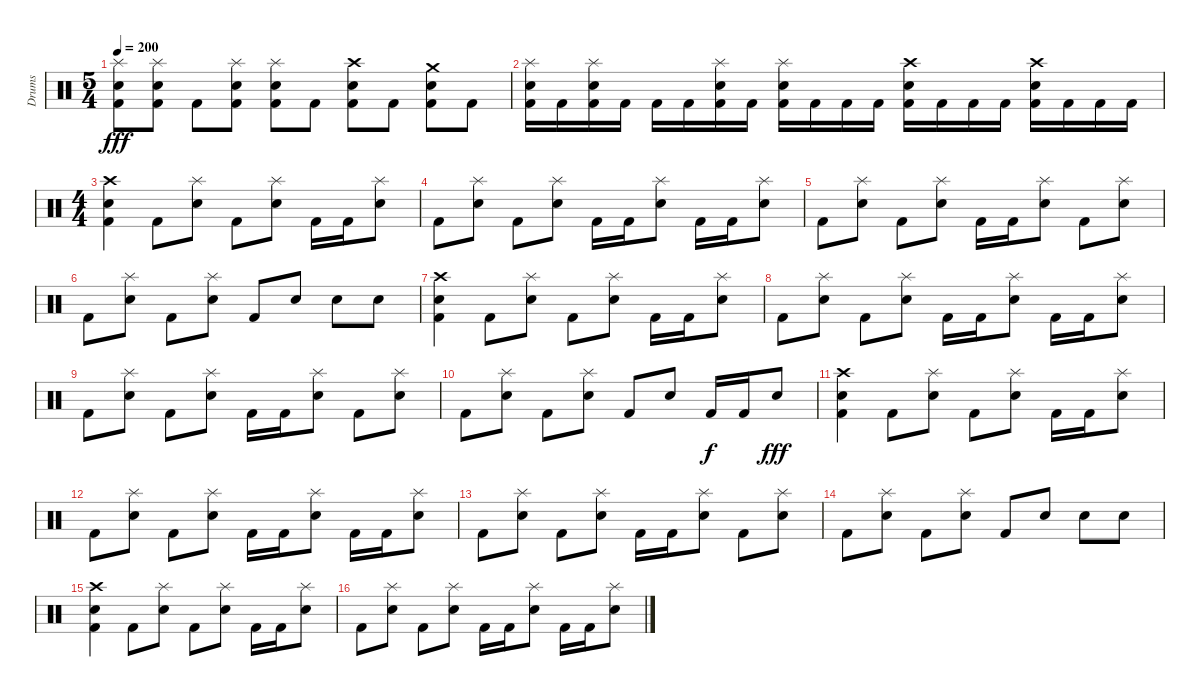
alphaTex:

\track ("Drums" "Drums") {instrument percussion}
\staff {score}
\articulation defaults
\ts (5 4)
\tempo 200
\clef neutral
\ks c
("Splash (hit)" "Snare (hit) 2" "Kick (hit) 2").8{dy fff} ("Splash (hit)" "Snare (hit) 2" "Kick (hit) 2").8 "Kick (hit) 2".8 ("Splash (hit)" "Snare (hit) 2" "Kick (hit) 2").8 ("Splash (hit)" "Snare (hit) 2" "Kick (hit) 2").8 "Kick (hit) 2".8 ("Crash high (hit)" "Snare (hit) 2" "Kick (hit) 2").8 "Kick (hit) 2".8 ("Crash medium (hit)" "Snare (hit) 2" "Kick (hit) 2").8 "Kick (hit) 2".8 |
("Splash (hit)" "Snare (hit) 2" "Kick (hit) 2").16 "Kick (hit) 2".16 ("Splash (hit)" "Snare (hit) 2" "Kick (hit) 2").16 "Kick (hit) 2".16 "Kick (hit) 2".16 "Kick (hit) 2".16 ("Splash (hit)" "Snare (hit) 2" "Kick (hit) 2").16 "Kick (hit) 2".16 ("Splash (hit)" "Snare (hit) 2" "Kick (hit) 2").16 "Kick (hit) 2".16 "Kick (hit) 2".16 "Kick (hit) 2".16 ("Crash high (hit)" "Snare (hit) 2" "Kick (hit) 2").16 "Kick (hit) 2".16 "Kick (hit) 2".16 "Kick (hit) 2".16 ("Crash high (hit)" "Snare (hit) 2" "Kick (hit) 2").16 "Kick (hit) 2".16 "Kick (hit) 2".16 "Kick (hit) 2".16 |
\ts (4 4)
("Crash high (hit)" "Snare (hit) 2" "Kick (hit) 2").4 "Kick (hit) 2".8 ("Splash (hit)" "Snare (hit) 2").8 "Kick (hit) 2".8 ("Splash (hit)" "Snare (hit) 2").8 "Kick (hit) 2".16 "Kick (hit) 2".16 ("Splash (hit)" "Snare (hit) 2").8 |
"Kick (hit) 2".8 ("Splash (hit)" "Snare (hit) 2").8 "Kick (hit) 2".8 ("Splash (hit)" "Snare (hit) 2").8 "Kick (hit) 2".16 "Kick (hit) 2".16 ("Splash (hit)" "Snare (hit) 2").8 "Kick (hit) 2".16 "Kick (hit) 2".16 ("Splash (hit)" "Snare (hit) 2").8 |
"Kick (hit) 2".8 ("Splash (hit)" "Snare (hit) 2").8 "Kick (hit) 2".8 ("Splash (hit)" "Snare (hit) 2").8 "Kick (hit) 2".16 "Kick (hit) 2".16 ("Splash (hit)" "Snare (hit) 2").8 "Kick (hit) 2".8 ("Splash (hit)" "Snare (hit) 2").8 |
"Kick (hit) 2".8 ("Splash (hit)" "Snare (hit) 2").8 "Kick (hit) 2".8 ("Splash (hit)" "Snare (hit) 2").8 "Kick (hit) 2".8 "Snare (hit) 2".8 "Snare (hit) 2".8 "Snare (hit) 2".8 |
("Crash high (hit)" "Snare (hit) 2" "Kick (hit) 2").4 "Kick (hit) 2".8 ("Splash (hit)" "Snare (hit) 2").8 "Kick (hit) 2".8 ("Splash (hit)" "Snare (hit) 2").8 "Kick (hit) 2".16 "Kick (hit) 2".16 ("Splash (hit)" "Snare (hit) 2").8 |
"Kick (hit) 2".8 ("Splash (hit)" "Snare (hit) 2").8 "Kick (hit) 2".8 ("Splash (hit)" "Snare (hit) 2").8 "Kick (hit) 2".16 "Kick (hit) 2".16 ("Splash (hit)" "Snare (hit) 2").8 "Kick (hit) 2".16 "Kick (hit) 2".16 ("Splash (hit)" "Snare (hit) 2").8 |
"Kick (hit) 2".8 ("Splash (hit)" "Snare (hit) 2").8 "Kick (hit) 2".8 ("Splash (hit)" "Snare (hit) 2").8 "Kick (hit) 2".16 "Kick (hit) 2".16 ("Splash (hit)" "Snare (hit) 2").8 "Kick (hit) 2".8 ("Splash (hit)" "Snare (hit) 2").8 |
"Kick (hit) 2".8 ("Splash (hit)" "Snare (hit) 2").8 "Kick (hit) 2".8 ("Splash (hit)" "Snare (hit) 2").8 "Kick (hit) 2".8 "Snare (hit) 2".8 "Kick (hit) 2".16{dy f} "Kick (hit) 2".16 "Snare (hit) 2".8{dy fff} |
("Crash high (hit)" "Snare (hit) 2" "Kick (hit) 2").4 "Kick (hit) 2".8 ("Splash (hit)" "Snare (hit) 2").8 "Kick (hit) 2".8 ("Splash (hit)" "Snare (hit) 2").8 "Kick (hit) 2".16 "Kick (hit) 2".16 ("Splash (hit)" "Snare (hit) 2").8 |
"Kick (hit) 2".8 ("Splash (hit)" "Snare (hit) 2").8 "Kick (hit) 2".8 ("Splash (hit)" "Snare (hit) 2").8 "Kick (hit) 2".16 "Kick (hit) 2".16 ("Splash (hit)" "Snare (hit) 2").8 "Kick (hit) 2".16 "Kick (hit) 2".16 ("Splash (hit)" "Snare (hit) 2").8 |
"Kick (hit) 2".8 ("Splash (hit)" "Snare (hit) 2").8 "Kick (hit) 2".8 ("Splash (hit)" "Snare (hit) 2").8 "Kick (hit) 2".16 "Kick (hit) 2".16 ("Splash (hit)" "Snare (hit) 2").8 "Kick (hit) 2".8 ("Splash (hit)" "Snare (hit) 2").8 |
"Kick (hit) 2".8 ("Splash (hit)" "Snare (hit) 2").8 "Kick (hit) 2".8 ("Splash (hit)" "Snare (hit) 2").8 "Kick (hit) 2".8 "Snare (hit) 2".8 "Snare (hit) 2".8 "Snare (hit) 2".8 |
("Crash high (hit)" "Snare (hit) 2" "Kick (hit) 2").4 "Kick (hit) 2".8 ("Splash (hit)" "Snare (hit) 2").8 "Kick (hit) 2".8 ("Splash (hit)" "Snare (hit) 2").8 "Kick (hit) 2".16 "Kick (hit) 2".16 ("Splash (hit)" "Snare (hit) 2").8 |
"Kick (hit) 2".8 ("Splash (hit)" "Snare (hit) 2").8 "Kick (hit) 2".8 ("Splash (hit)" "Snare (hit) 2").8 "Kick (hit) 2".16 "Kick (hit) 2".16 ("Splash (hit)" "Snare (hit) 2").8 "Kick (hit) 2".16 "Kick (hit) 2".16 ("Splash (hit)" "Snare (hit) 2").8
